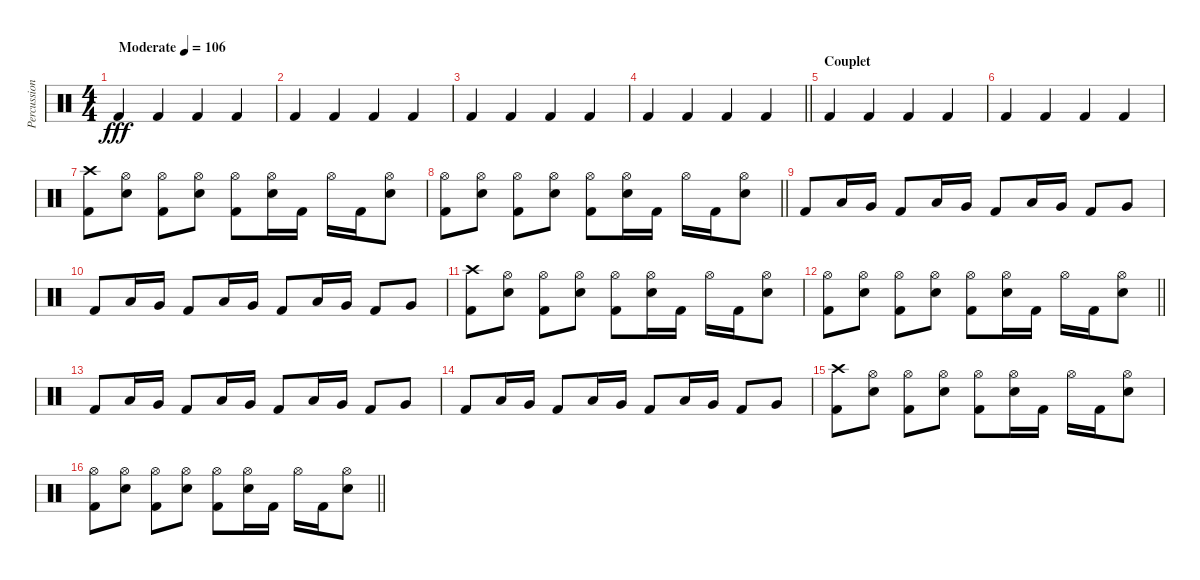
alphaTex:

\track ("Percussion 2" "Percussion") {instrument percussion}
\staff {score}
\articulation defaults
\ts (4 4)
\tempo (106 "Moderate")
\clef neutral
\ks c "Kick (hit) 2".4{dy fff} "Kick (hit) 2".4 "Kick (hit) 2".4 "Kick (hit) 2".4
|
"Kick (hit) 2".4 "Kick (hit) 2".4 "Kick (hit) 2".4 "Kick (hit) 2".4 |
"Kick (hit) 2".4 "Kick (hit) 2".4 "Kick (hit) 2".4 "Kick (hit) 2".4 |
\barLineRight lightlight "Kick (hit) 2".4 "Kick (hit) 2".4 "Kick (hit) 2".4 "Kick (hit) 2".4
|
\section ("" "Couplet")
"Kick (hit) 2".4 "Kick (hit) 2".4 "Kick (hit) 2".4 "Kick (hit) 2".4 |
"Kick (hit) 2".4 "Kick (hit) 2".4 "Kick (hit) 2".4 "Kick (hit) 2".4 |
("Crash high (hit)" "Kick (hit) 2").8 ("Hi-Hat (open)" "Electric Snare (hit)").8 ("Hi-Hat (open)" "Kick (hit) 2").8 ("Hi-Hat (open)" "Electric Snare (hit)").8 ("Hi-Hat (open)" "Kick (hit) 2").8 ("Hi-Hat (open)" "Electric Snare (hit)").16 "Kick (hit) 2".16 "Hi-Hat (open)".16 "Kick (hit) 2".16 ("Hi-Hat (open)" "Electric Snare (hit)").8 |
\barLineRight lightlight
("Hi-Hat (open)" "Kick (hit) 2").8 ("Hi-Hat (open)" "Electric Snare (hit)").8 ("Hi-Hat (open)" "Kick (hit) 2").8 ("Hi-Hat (open)" "Electric Snare (hit)").8 ("Hi-Hat (open)" "Kick (hit) 2").8 ("Hi-Hat (open)" "Electric Snare (hit)").16 "Kick (hit) 2".16 "Hi-Hat (open)".16 "Kick (hit) 2".16 ("Hi-Hat (open)" "Electric Snare (hit)").8 |
"Kick (hit) 2".8 "Low Floor Tom (hit)".16 "Very Low Tom (hit)".16 "Kick (hit) 2".8 "Low Floor Tom (hit)".16 "Very Low Tom (hit)".16 "Kick (hit) 2".8 "Low Floor Tom (hit)".16 "Very Low Tom (hit)".16 "Kick (hit) 2".8 "Very Low Tom (hit)".8 |
"Kick (hit) 2".8 "Low Floor Tom (hit)".16 "Very Low Tom (hit)".16 "Kick (hit) 2".8 "Low Floor Tom (hit)".16 "Very Low Tom (hit)".16 "Kick (hit) 2".8 "Low Floor Tom (hit)".16 "Very Low Tom (hit)".16 "Kick (hit) 2".8 "Very Low Tom (hit)".8 |
("Crash high (hit)" "Kick (hit) 2").8 ("Hi-Hat (open)" "Electric Snare (hit)").8 ("Hi-Hat (open)" "Kick (hit) 2").8 ("Hi-Hat (open)" "Electric Snare (hit)").8 ("Hi-Hat (open)" "Kick (hit) 2").8 ("Hi-Hat (open)" "Electric Snare (hit)").16 "Kick (hit) 2".16 "Hi-Hat (open)".16 "Kick (hit) 2".16 ("Hi-Hat (open)" "Electric Snare (hit)").8 |
\barLineRight lightlight
("Hi-Hat (open)" "Kick (hit) 2").8 ("Hi-Hat (open)" "Electric Snare (hit)").8 ("Hi-Hat (open)" "Kick (hit) 2").8 ("Hi-Hat (open)" "Electric Snare (hit)").8 ("Hi-Hat (open)" "Kick (hit) 2").8 ("Hi-Hat (open)" "Electric Snare (hit)").16 "Kick (hit) 2".16 "Hi-Hat (open)".16 "Kick (hit) 2".16 ("Hi-Hat (open)" "Electric Snare (hit)").8 |
"Kick (hit) 2".8 "Low Floor Tom (hit)".16 "Very Low Tom (hit)".16 "Kick (hit) 2".8 "Low Floor Tom (hit)".16 "Very Low Tom (hit)".16 "Kick (hit) 2".8 "Low Floor Tom (hit)".16 "Very Low Tom (hit)".16 "Kick (hit) 2".8 "Very Low Tom (hit)".8 |
"Kick (hit) 2".8 "Low Floor Tom (hit)".16 "Very Low Tom (hit)".16 "Kick (hit) 2".8 "Low Floor Tom (hit)".16 "Very Low Tom (hit)".16 "Kick (hit) 2".8 "Low Floor Tom (hit)".16 "Very Low Tom (hit)".16 "Kick (hit) 2".8 "Very Low Tom (hit)".8 |
("Crash high (hit)" "Kick (hit) 2").8 ("Hi-Hat (open)" "Electric Snare (hit)").8 ("Hi-Hat (open)" "Kick (hit) 2").8 ("Hi-Hat (open)" "Electric Snare (hit)").8 ("Hi-Hat (open)" "Kick (hit) 2").8 ("Hi-Hat (open)" "Electric Snare (hit)").16 "Kick (hit) 2".16 "Hi-Hat (open)".16 "Kick (hit) 2".16 ("Hi-Hat (open)" "Electric Snare (hit)").8 |
\barLineRight lightlight
("Hi-Hat (open)" "Kick (hit) 2").8 ("Hi-Hat (open)" "Electric Snare (hit)").8 ("Hi-Hat (open)" "Kick (hit) 2").8 ("Hi-Hat (open)" "Electric Snare (hit)").8 ("Hi-Hat (open)" "Kick (hit) 2").8 ("Hi-Hat (open)" "Electric Snare (hit)").16 "Kick (hit) 2".16 "Hi-Hat (open)".16 "Kick (hit) 2".16 ("Hi-Hat (open)" "Electric Snare (hit)").8
